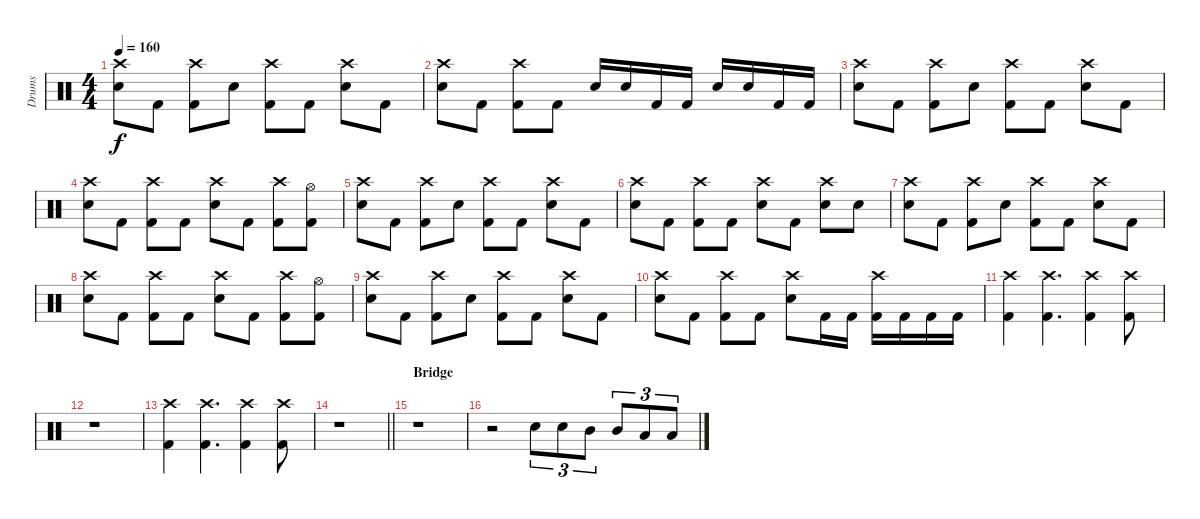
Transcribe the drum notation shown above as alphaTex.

\track ("Drums" "Drums") {instrument percussion}
\staff {score}
\articulation defaults
\ts (4 4)
\tempo 160
\clef neutral
\ks c
("Crash high (hit)" "Electric Snare (hit)").8{dy f} "Kick (hit) 2".8 ("Crash high (hit)" "Kick (hit) 2").8 "Electric Snare (hit)".8 ("Crash high (hit)" "Kick (hit) 2").8 "Kick (hit) 2".8 ("Crash high (hit)" "Electric Snare (hit)").8 "Kick (hit) 2".8 |
("Crash high (hit)" "Electric Snare (hit)").8 "Kick (hit) 2".8 ("Crash high (hit)" "Kick (hit) 2").8 "Kick (hit) 2".8 "Electric Snare (hit)".16 "Electric Snare (hit)".16 "Kick (hit) 2".16 "Kick (hit) 2".16 "Electric Snare (hit)".16 "Electric Snare (hit)".16 "Kick (hit) 2".16 "Kick (hit) 2".16 |
("Crash high (hit)" "Electric Snare (hit)").8 "Kick (hit) 2".8 ("Crash high (hit)" "Kick (hit) 2").8 "Electric Snare (hit)".8 ("Crash high (hit)" "Kick (hit) 2").8 "Kick (hit) 2".8 ("Crash high (hit)" "Electric Snare (hit)").8 "Kick (hit) 2".8 |
("Crash high (hit)" "Electric Snare (hit)").8 "Kick (hit) 2".8 ("Crash high (hit)" "Kick (hit) 2").8 "Kick (hit) 2".8 ("Crash high (hit)" "Electric Snare (hit)").8 "Kick (hit) 2".8 ("Crash high (hit)" "Kick (hit) 2").8 ("Hi-Hat (open)" "Kick (hit) 2").8 |
("Crash high (hit)" "Electric Snare (hit)").8 "Kick (hit) 2".8 ("Crash high (hit)" "Kick (hit) 2").8 "Electric Snare (hit)".8 ("Crash high (hit)" "Kick (hit) 2").8 "Kick (hit) 2".8 ("Crash high (hit)" "Electric Snare (hit)").8 "Kick (hit) 2".8 |
("Crash high (hit)" "Electric Snare (hit)").8 "Kick (hit) 2".8 ("Crash high (hit)" "Kick (hit) 2").8 "Kick (hit) 2".8 ("Crash high (hit)" "Electric Snare (hit)").8 "Kick (hit) 2".8 ("Crash high (hit)" "Electric Snare (hit)").8 "Electric Snare (hit)".8 |
("Crash high (hit)" "Electric Snare (hit)").8 "Kick (hit) 2".8 ("Crash high (hit)" "Kick (hit) 2").8 "Electric Snare (hit)".8 ("Crash high (hit)" "Kick (hit) 2").8 "Kick (hit) 2".8 ("Crash high (hit)" "Electric Snare (hit)").8 "Kick (hit) 2".8 |
("Crash high (hit)" "Electric Snare (hit)").8 "Kick (hit) 2".8 ("Crash high (hit)" "Kick (hit) 2").8 "Kick (hit) 2".8 ("Crash high (hit)" "Electric Snare (hit)").8 "Kick (hit) 2".8 ("Crash high (hit)" "Kick (hit) 2").8 ("Hi-Hat (open)" "Kick (hit) 2").8 |
("Crash high (hit)" "Electric Snare (hit)").8 "Kick (hit) 2".8 ("Crash high (hit)" "Kick (hit) 2").8 "Electric Snare (hit)".8 ("Crash high (hit)" "Kick (hit) 2").8 "Kick (hit) 2".8 ("Crash high (hit)" "Electric Snare (hit)").8 "Kick (hit) 2".8 |
("Crash high (hit)" "Electric Snare (hit)").8 "Kick (hit) 2".8 ("Crash high (hit)" "Kick (hit) 2").8 "Kick (hit) 2".8 ("Crash high (hit)" "Electric Snare (hit)").8 "Kick (hit) 2".16 "Kick (hit) 2".16 ("Crash high (hit)" "Kick (hit) 2").16 "Kick (hit) 2".16 "Kick (hit) 2".16 "Kick (hit) 2".16 |
("Crash high (hit)" "Kick (hit) 2").4 ("Crash high (hit)" "Kick (hit) 2").4{d} ("Crash high (hit)" "Kick (hit) 2").4 ("Crash high (hit)" "Kick (hit) 2").8 |
r.1 |
("Crash high (hit)" "Kick (hit) 2").4 ("Crash high (hit)" "Kick (hit) 2").4{d} ("Crash high (hit)" "Kick (hit) 2").4 ("Crash high (hit)" "Kick (hit) 2").8 |
\barLineRight lightlight
r.1 |
\section ("" "Bridge")
r.1 |
r.2 "Electric Snare (hit)".8{tu (3 2)} "Electric Snare (hit)".8{tu (3 2)} "Mid Tom (hit)".8{tu (3 2)} "Mid Tom (hit)".8{tu (3 2)} "Low Tom (hit)".8{tu (3 2)} "Low Tom (hit)".8{tu (3 2)}
